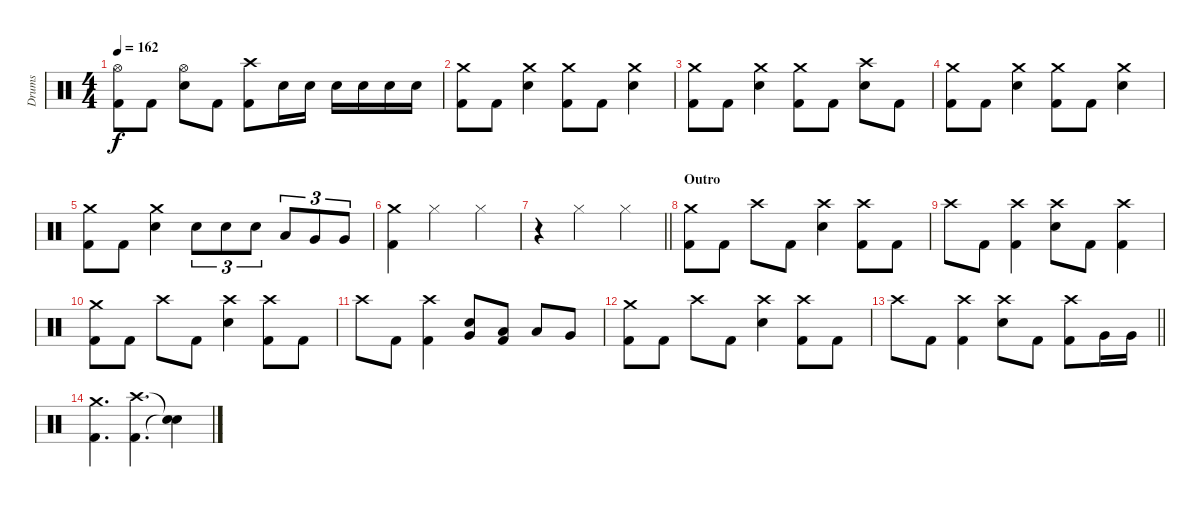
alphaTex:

\track ("Drums" "Drums") {instrument percussion}
\staff {score}
\articulation defaults
\ts (4 4)
\tempo 162
\clef neutral
\ks c
("Hi-Hat (open)" "Kick (hit) 2").8{dy f} "Kick (hit) 2".8 ("Hi-Hat (open)" "Electric Snare (hit)").8 "Kick (hit) 2".8 ("Crash high (hit)" "Kick (hit) 2").8 "Electric Snare (hit)".16 "Electric Snare (hit)".16 "Electric Snare (hit)".16 "Electric Snare (hit)".16 "Electric Snare (hit)".16 "Electric Snare (hit)".16 |
("Crash medium (hit)" "Kick (hit) 2").8 "Kick (hit) 2".8 ("Crash medium (hit)" "Electric Snare (hit)").4 ("Crash medium (hit)" "Kick (hit) 2").8 "Kick (hit) 2".8 ("Crash medium (hit)" "Electric Snare (hit)").4 |
("Crash medium (hit)" "Kick (hit) 2").8 "Kick (hit) 2".8 ("Crash medium (hit)" "Electric Snare (hit)").4 ("Crash medium (hit)" "Kick (hit) 2").8 "Kick (hit) 2".8 ("Crash high (hit)" "Electric Snare (hit)").8 "Kick (hit) 2".8 |
("Crash medium (hit)" "Kick (hit) 2").8 "Kick (hit) 2".8 ("Crash medium (hit)" "Electric Snare (hit)").4 ("Crash medium (hit)" "Kick (hit) 2").8 "Kick (hit) 2".8 ("Crash medium (hit)" "Electric Snare (hit)").4 |
("Crash medium (hit)" "Kick (hit) 2").8 "Kick (hit) 2".8 ("Crash medium (hit)" "Electric Snare (hit)").4 "Electric Snare (hit)".8{tu (3 2)} "Electric Snare (hit)".8{tu (3 2)} "Electric Snare (hit)".8{tu (3 2)} "Low Tom (hit)".8{tu (3 2)} "Very Low Tom (hit)".8{tu (3 2)} "Very Low Tom (hit)".8{tu (3 2)} |
("Crash medium (hit)" "Kick (hit) 2").4 "Hi-Hat (closed)".2 "Hi-Hat (closed)".4 |
\barLineRight lightlight
r.4 "Hi-Hat (closed)".2 "Hi-Hat (closed)".4 |
\section ("" "Outro")
("Crash medium (hit)" "Kick (hit) 2").8 "Kick (hit) 2".8 "Crash high (hit)".8 "Kick (hit) 2".8 ("Crash high (hit)" "Electric Snare (hit)").4 ("Crash high (hit)" "Kick (hit) 2").8 "Kick (hit) 2".8 |
"Crash high (hit)".8 "Kick (hit) 2".8 ("Crash high (hit)" "Kick (hit) 2").4 ("Crash high (hit)" "Electric Snare (hit)").8 "Kick (hit) 2".8 ("Crash high (hit)" "Kick (hit) 2").4 |
("Crash medium (hit)" "Kick (hit) 2").8 "Kick (hit) 2".8 "Crash high (hit)".8 "Kick (hit) 2".8 ("Crash high (hit)" "Electric Snare (hit)").4 ("Crash high (hit)" "Kick (hit) 2").8 "Kick (hit) 2".8 |
"Crash high (hit)".8 "Kick (hit) 2".8 ("Crash high (hit)" "Kick (hit) 2").4 ("Very Low Tom (hit)" "Electric Snare (hit)").8 ("Low Floor Tom (hit)" "Kick (hit) 2").8 "Low Tom (hit)".8 "Very Low Tom (hit)".8 |
("Crash medium (hit)" "Kick (hit) 2").8 "Kick (hit) 2".8 "Crash high (hit)".8 "Kick (hit) 2".8 ("Crash high (hit)" "Electric Snare (hit)").4 ("Crash high (hit)" "Kick (hit) 2").8 "Kick (hit) 2".8 |
\barLineRight lightlight "Crash high (hit)".8 "Kick (hit) 2".8
("Crash high (hit)" "Kick (hit) 2").4 ("Crash high (hit)" "Electric Snare (hit)").8 "Kick (hit) 2".8 ("Crash high (hit)" "Kick (hit) 2").8 "Very Low Tom (hit)".16 "Very Low Tom (hit)".16 |
("Crash medium (hit)" "Kick (hit) 2").4{d} ("Crash high (hit)" "Kick (hit) 2").4{d} ("Snare (hit)"{t} "Snare (hit)"{t}).4
